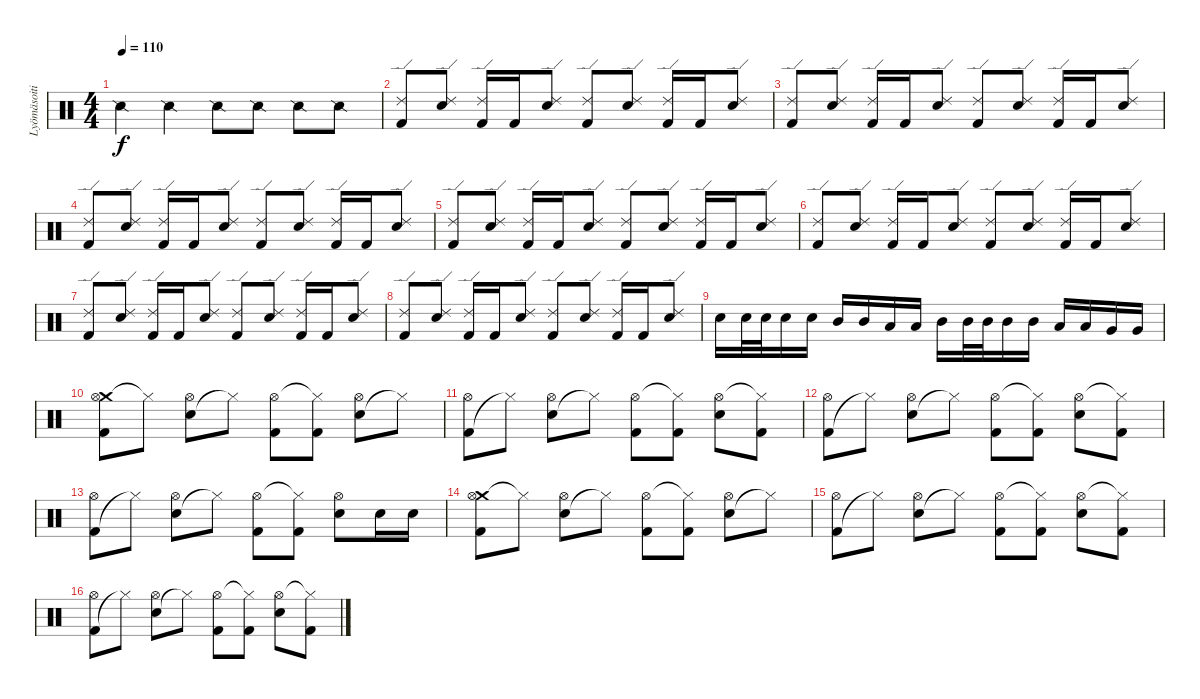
\track ("Lyömäsoitin" "Lyömäsoiti") {instrument percussion}
\staff {score}
\articulation defaults
\ts (4 4)
\tempo 110
\clef neutral
\ks c "Snare (side stick) 2".4{dy f} "Snare (side stick) 2".4 "Snare (side stick) 2".8 "Snare (side stick) 2".8 "Snare (side stick) 2".8 "Snare (side stick) 2".8
|
("Kick (hit) 2" "Ride (edge) 2").8 ("Electric Snare (hit)" "Ride (edge) 2").8 ("Kick (hit) 2" "Ride (edge) 2").16 "Kick (hit) 2".16 ("Electric Snare (hit)" "Ride (edge) 2").8 ("Kick (hit) 2" "Ride (edge) 2").8 ("Electric Snare (hit)" "Ride (edge) 2").8 ("Kick (hit) 2" "Ride (edge) 2").16 "Kick (hit) 2".16 ("Electric Snare (hit)" "Ride (edge) 2").8 |
("Kick (hit) 2" "Ride (edge) 2").8 ("Electric Snare (hit)" "Ride (edge) 2").8 ("Kick (hit) 2" "Ride (edge) 2").16 "Kick (hit) 2".16 ("Electric Snare (hit)" "Ride (edge) 2").8 ("Kick (hit) 2" "Ride (edge) 2").8 ("Electric Snare (hit)" "Ride (edge) 2").8 ("Kick (hit) 2" "Ride (edge) 2").16 "Kick (hit) 2".16 ("Electric Snare (hit)" "Ride (edge) 2").8 |
("Kick (hit) 2" "Ride (edge) 2").8 ("Electric Snare (hit)" "Ride (edge) 2").8 ("Kick (hit) 2" "Ride (edge) 2").16 "Kick (hit) 2".16 ("Electric Snare (hit)" "Ride (edge) 2").8 ("Kick (hit) 2" "Ride (edge) 2").8 ("Electric Snare (hit)" "Ride (edge) 2").8 ("Kick (hit) 2" "Ride (edge) 2").16 "Kick (hit) 2".16 ("Electric Snare (hit)" "Ride (edge) 2").8 |
("Kick (hit) 2" "Ride (edge) 2").8 ("Electric Snare (hit)" "Ride (edge) 2").8 ("Kick (hit) 2" "Ride (edge) 2").16 "Kick (hit) 2".16 ("Electric Snare (hit)" "Ride (edge) 2").8 ("Kick (hit) 2" "Ride (edge) 2").8 ("Electric Snare (hit)" "Ride (edge) 2").8 ("Kick (hit) 2" "Ride (edge) 2").16 "Kick (hit) 2".16 ("Electric Snare (hit)" "Ride (edge) 2").8 |
("Kick (hit) 2" "Ride (edge) 2").8 ("Electric Snare (hit)" "Ride (edge) 2").8 ("Kick (hit) 2" "Ride (edge) 2").16 "Kick (hit) 2".16 ("Electric Snare (hit)" "Ride (edge) 2").8 ("Kick (hit) 2" "Ride (edge) 2").8 ("Electric Snare (hit)" "Ride (edge) 2").8 ("Kick (hit) 2" "Ride (edge) 2").16 "Kick (hit) 2".16 ("Electric Snare (hit)" "Ride (edge) 2").8 |
("Kick (hit) 2" "Ride (edge) 2").8 ("Electric Snare (hit)" "Ride (edge) 2").8 ("Kick (hit) 2" "Ride (edge) 2").16 "Kick (hit) 2".16 ("Electric Snare (hit)" "Ride (edge) 2").8 ("Kick (hit) 2" "Ride (edge) 2").8 ("Electric Snare (hit)" "Ride (edge) 2").8 ("Kick (hit) 2" "Ride (edge) 2").16 "Kick (hit) 2".16 ("Electric Snare (hit)" "Ride (edge) 2").8 |
("Kick (hit) 2" "Ride (edge) 2").8 ("Electric Snare (hit)" "Ride (edge) 2").8 ("Kick (hit) 2" "Ride (edge) 2").16 "Kick (hit) 2".16 ("Electric Snare (hit)" "Ride (edge) 2").8 ("Kick (hit) 2" "Ride (edge) 2").8 ("Electric Snare (hit)" "Ride (edge) 2").8 ("Kick (hit) 2" "Ride (edge) 2").16 "Kick (hit) 2".16 ("Electric Snare (hit)" "Ride (edge) 2").8 |
"Electric Snare (hit)".16 "Electric Snare (hit)".32 "Electric Snare (hit)".32 "Electric Snare (hit)".16 "Electric Snare (hit)".16 "Mid Tom (hit)".16 "Mid Tom (hit)".16 "Low Tom (hit)".16 "Low Tom (hit)".16 "Mid Tom (hit)".16 "Mid Tom (hit)".32 "Mid Tom (hit)".32 "Mid Tom (hit)".16 "Mid Tom (hit)".16 "Low Tom (hit)".16 "Low Tom (hit)".16 "Very Low Tom (hit)".16 "Very Low Tom (hit)".16 |
("Crash medium (hit)" "Kick (hit) 2" "Hi-Hat (open)").8 "Hi-Hat (closed)"{t}.8 ("Electric Snare (hit)" "Hi-Hat (open)").8 "Hi-Hat (closed)"{t}.8 ("Kick (hit) 2" "Hi-Hat (open)").8 ("Kick (hit) 2" "Hi-Hat (closed)"{t}).8 ("Electric Snare (hit)" "Hi-Hat (open)").8 "Hi-Hat (closed)"{t}.8 |
("Kick (hit) 2" "Hi-Hat (open)").8 "Hi-Hat (closed)"{t}.8 ("Electric Snare (hit)" "Hi-Hat (open)").8 "Hi-Hat (closed)"{t}.8 ("Kick (hit) 2" "Hi-Hat (open)").8 ("Kick (hit) 2" "Hi-Hat (closed)"{t}).8 ("Electric Snare (hit)" "Hi-Hat (open)").8 ("Kick (hit) 2" "Hi-Hat (closed)"{t}).8 |
("Kick (hit) 2" "Hi-Hat (open)").8 "Hi-Hat (closed)"{t}.8 ("Electric Snare (hit)" "Hi-Hat (open)").8 "Hi-Hat (closed)"{t}.8 ("Kick (hit) 2" "Hi-Hat (open)").8 ("Kick (hit) 2" "Hi-Hat (closed)"{t}).8 ("Electric Snare (hit)" "Hi-Hat (open)").8 ("Kick (hit) 2" "Hi-Hat (closed)"{t}).8 |
("Kick (hit) 2" "Hi-Hat (open)").8 "Hi-Hat (closed)"{t}.8 ("Electric Snare (hit)" "Hi-Hat (open)").8 "Hi-Hat (closed)"{t}.8 ("Kick (hit) 2" "Hi-Hat (open)").8 ("Kick (hit) 2" "Hi-Hat (closed)"{t}).8 ("Electric Snare (hit)" "Hi-Hat (open)").8 "Electric Snare (hit)".16 "Electric Snare (hit)".16 |
("Crash medium (hit)" "Kick (hit) 2" "Hi-Hat (open)").8 "Hi-Hat (closed)"{t}.8 ("Electric Snare (hit)" "Hi-Hat (open)").8 "Hi-Hat (closed)"{t}.8 ("Kick (hit) 2" "Hi-Hat (open)").8 ("Kick (hit) 2" "Hi-Hat (closed)"{t}).8 ("Electric Snare (hit)" "Hi-Hat (open)").8 "Hi-Hat (closed)"{t}.8 |
("Kick (hit) 2" "Hi-Hat (open)").8 "Hi-Hat (closed)"{t}.8 ("Electric Snare (hit)" "Hi-Hat (open)").8 "Hi-Hat (closed)"{t}.8 ("Kick (hit) 2" "Hi-Hat (open)").8 ("Kick (hit) 2" "Hi-Hat (closed)"{t}).8 ("Electric Snare (hit)" "Hi-Hat (open)").8 ("Kick (hit) 2" "Hi-Hat (closed)"{t}).8 |
("Kick (hit) 2" "Hi-Hat (open)").8 "Hi-Hat (closed)"{t}.8 ("Electric Snare (hit)" "Hi-Hat (open)").8 "Hi-Hat (closed)"{t}.8 ("Kick (hit) 2" "Hi-Hat (open)").8 ("Kick (hit) 2" "Hi-Hat (closed)"{t}).8 ("Electric Snare (hit)" "Hi-Hat (open)").8 ("Kick (hit) 2" "Hi-Hat (closed)"{t}).8
